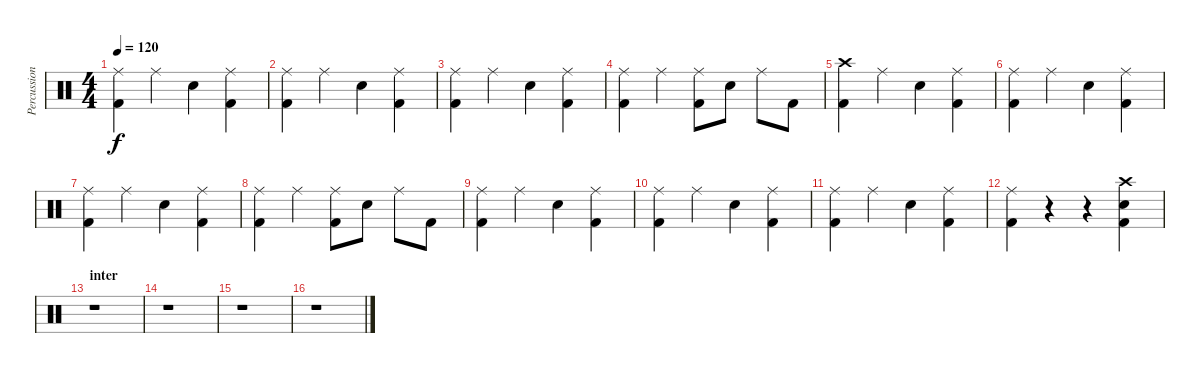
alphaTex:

\track ("Percussion" "Percussion") {instrument percussion}
\staff {score}
\articulation defaults
\ts (4 4)
\tempo 120
\clef neutral
\ks c
("Ride (middle)" "Kick (hit) 2").4{dy f} "Ride (middle)".4 "Snare (hit) 2".4 ("Ride (middle)" "Kick (hit) 2").4 |
("Ride (middle)" "Kick (hit) 2").4 "Ride (middle)".4 "Snare (hit) 2".4 ("Ride (middle)" "Kick (hit) 2").4 |
("Ride (middle)" "Kick (hit) 2").4 "Ride (middle)".4 "Snare (hit) 2".4 ("Ride (middle)" "Kick (hit) 2").4 |
("Ride (middle)" "Kick (hit) 2").4 "Ride (middle)".4 ("Ride (middle)" "Kick (hit) 2").8 "Snare (hit) 2".8 "Ride (middle)".8 "Kick (hit) 2".8 |
("Crash high (hit)" "Kick (hit) 2").4 "Ride (middle)".4 "Snare (hit) 2".4 ("Ride (middle)" "Kick (hit) 2").4 |
("Ride (middle)" "Kick (hit) 2").4 "Ride (middle)".4 "Snare (hit) 2".4 ("Ride (middle)" "Kick (hit) 2").4 |
("Ride (middle)" "Kick (hit) 2").4 "Ride (middle)".4 "Snare (hit) 2".4 ("Ride (middle)" "Kick (hit) 2").4 |
("Ride (middle)" "Kick (hit) 2").4 "Ride (middle)".4 ("Ride (middle)" "Kick (hit) 2").8 "Snare (hit) 2".8 "Ride (middle)".8 "Kick (hit) 2".8 |
("Ride (middle)" "Kick (hit) 2").4 "Ride (middle)".4 "Snare (hit) 2".4 ("Ride (middle)" "Kick (hit) 2").4 |
("Ride (middle)" "Kick (hit) 2").4 "Ride (middle)".4 "Snare (hit) 2".4 ("Ride (middle)" "Kick (hit) 2").4 |
("Ride (middle)" "Kick (hit) 2").4 "Ride (middle)".4 "Snare (hit) 2".4 ("Ride (middle)" "Kick (hit) 2").4 |
("Ride (middle)" "Kick (hit) 2").4 r.4 r.4 ("Crash high (hit)" "Snare (hit) 2" "Kick (hit) 2").4 |
\section ("" "inter")
r.1 |
r.1 |
r.1 |
r.1
